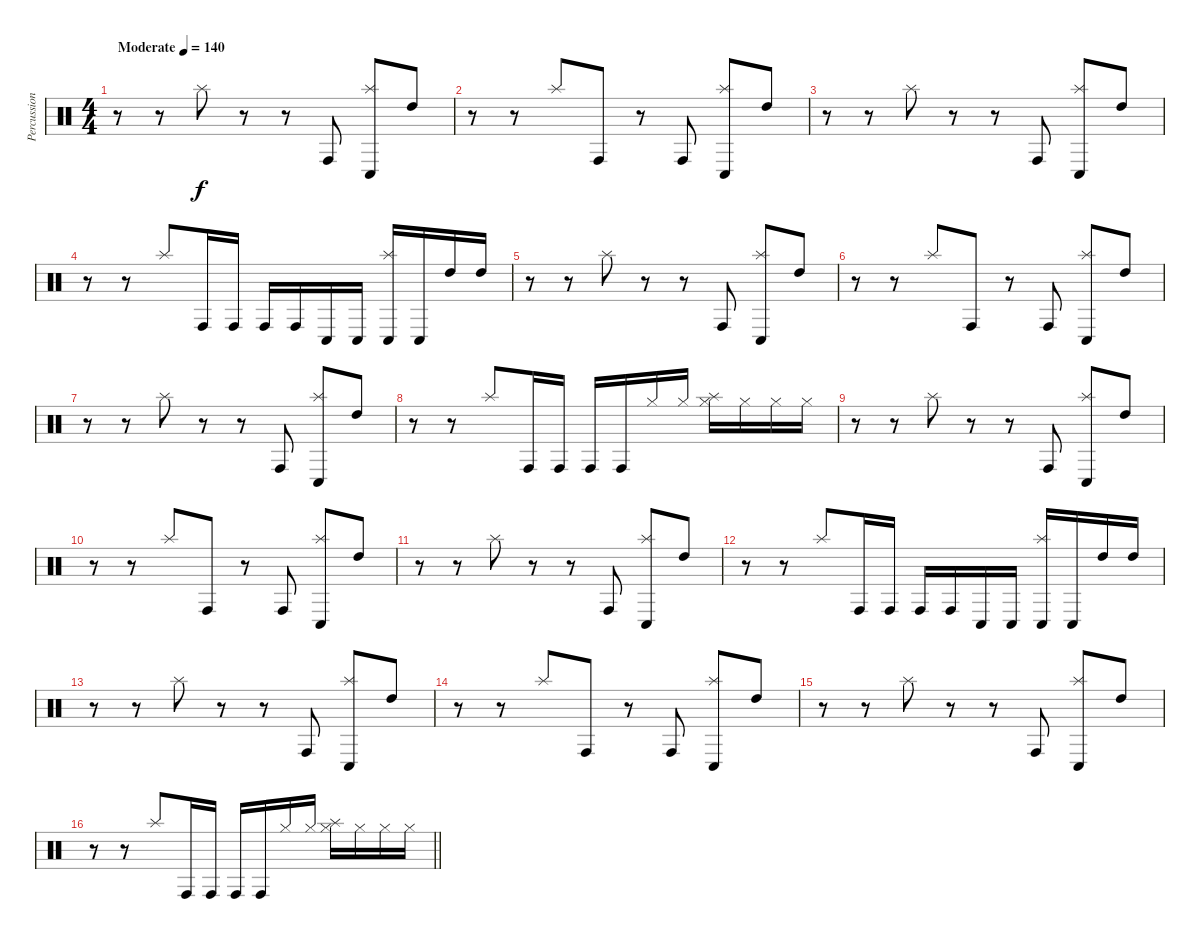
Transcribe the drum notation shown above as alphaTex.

\track ("Percussion" "Percussion") {instrument percussion}
\staff {score}
\articulation defaults
\ts (4 4)
\tempo (140 "Moderate")
\clef neutral
\ks c
r.8{dy f} r.8 "Splash (hit)".8 r.8 r.8 "Conga high (hit)".8 ("Conga low (hit)" "Splash (hit)").8 "High Tom (hit)".8 |
r.8 r.8 "Splash (hit)".8 "Conga high (hit)".8 r.8 "Conga high (hit)".8 ("Conga low (hit)" "Splash (hit)").8 "High Tom (hit)".8 |
r.8 r.8 "Splash (hit)".8 r.8 r.8 "Conga high (hit)".8 ("Conga low (hit)" "Splash (hit)").8 "High Tom (hit)".8 |
r.8 r.8 "Splash (hit)".8 "Conga high (hit)".16 "Conga high (hit)".16 "Conga high (hit)".16 "Conga high (hit)".16 "Conga low (hit)".16 "Conga low (hit)".16 ("Conga low (hit)" "Splash (hit)").16 "Conga low (hit)".16 "High Tom (hit)".16 "High Tom (hit)".16 |
r.8 r.8 "Splash (hit)".8 r.8 r.8 "Conga high (hit)".8 ("Conga low (hit)" "Splash (hit)").8 "High Tom (hit)".8 |
r.8 r.8 "Splash (hit)".8 "Conga high (hit)".8 r.8 "Conga high (hit)".8 ("Conga low (hit)" "Splash (hit)").8 "High Tom (hit)".8 |
r.8 r.8 "Splash (hit)".8 r.8 r.8 "Conga high (hit)".8 ("Conga low (hit)" "Splash (hit)").8 "High Tom (hit)".8 |
r.8 r.8 "Splash (hit)".8 "Conga high (hit)".16 "Conga high (hit)".16 "Conga high (hit)".16 "Conga high (hit)".16 "Hi-Hat (closed)".16 "Hi-Hat (closed)".16 ("Hi-Hat (closed)" "Splash (hit)").16 "Hi-Hat (closed)".16 "Hi-Hat (closed)".16 "Hi-Hat (closed)".16 |
r.8 r.8 "Splash (hit)".8 r.8 r.8 "Conga high (hit)".8 ("Conga low (hit)" "Splash (hit)").8 "High Tom (hit)".8 |
r.8 r.8 "Splash (hit)".8 "Conga high (hit)".8 r.8 "Conga high (hit)".8 ("Conga low (hit)" "Splash (hit)").8 "High Tom (hit)".8 |
r.8 r.8 "Splash (hit)".8 r.8 r.8 "Conga high (hit)".8 ("Conga low (hit)" "Splash (hit)").8 "High Tom (hit)".8 |
r.8 r.8 "Splash (hit)".8 "Conga high (hit)".16 "Conga high (hit)".16 "Conga high (hit)".16 "Conga high (hit)".16 "Conga low (hit)".16 "Conga low (hit)".16 ("Conga low (hit)" "Splash (hit)").16 "Conga low (hit)".16 "High Tom (hit)".16 "High Tom (hit)".16 |
r.8 r.8 "Splash (hit)".8 r.8 r.8 "Conga high (hit)".8 ("Conga low (hit)" "Splash (hit)").8 "High Tom (hit)".8 |
r.8 r.8 "Splash (hit)".8 "Conga high (hit)".8 r.8 "Conga high (hit)".8 ("Conga low (hit)" "Splash (hit)").8 "High Tom (hit)".8 |
r.8 r.8 "Splash (hit)".8 r.8 r.8 "Conga high (hit)".8 ("Conga low (hit)" "Splash (hit)").8 "High Tom (hit)".8 |
\barLineRight lightlight
r.8 r.8 "Splash (hit)".8 "Conga high (hit)".16 "Conga high (hit)".16 "Conga high (hit)".16 "Conga high (hit)".16 "Hi-Hat (closed)".16 "Hi-Hat (closed)".16 ("Hi-Hat (closed)" "Splash (hit)").16 "Hi-Hat (closed)".16 "Hi-Hat (closed)".16 "Hi-Hat (closed)".16
